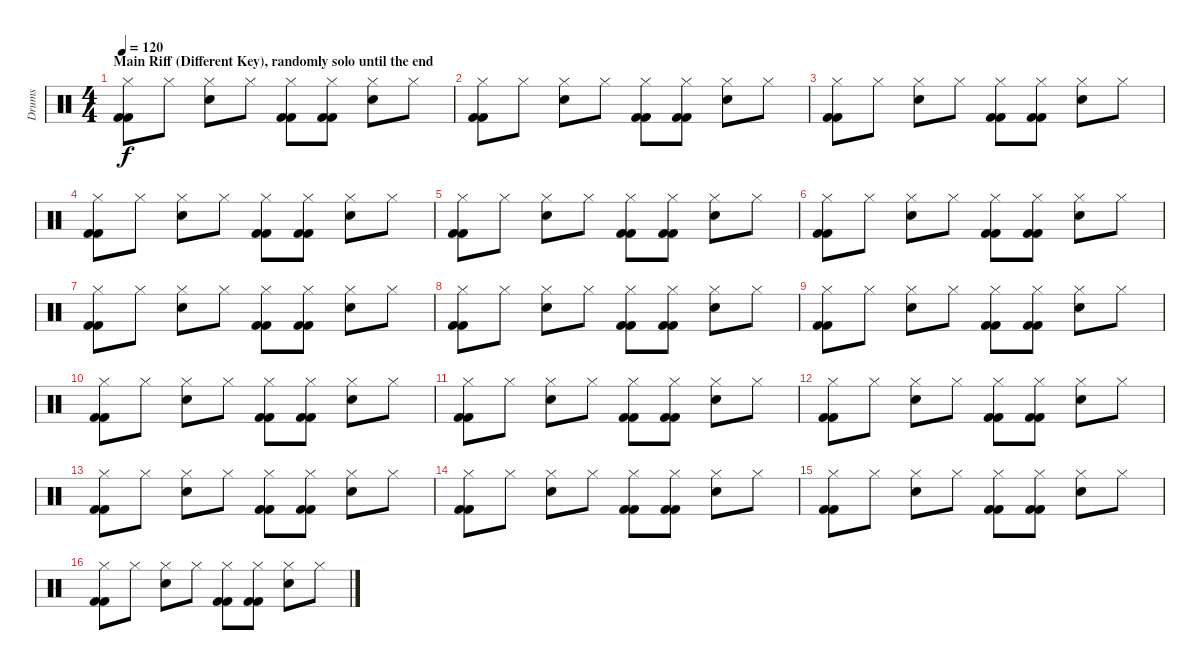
\track ("Drums" "Drums") {instrument percussion}
\staff {score}
\articulation defaults
\ts (4 4)
\section ("" "Main Riff (Different Key), randomly solo until the end")
\tempo 120
\clef neutral
\ks c
("Kick (hit) 2" "Hi-Hat (closed)" "Kick (hit) 2").8{dy f} "Hi-Hat (closed)".8 ("Snare (hit) 2" "Hi-Hat (closed)").8 "Hi-Hat (closed)".8 ("Kick (hit) 2" "Hi-Hat (closed)" "Kick (hit) 2").8 ("Kick (hit) 2" "Hi-Hat (closed)" "Kick (hit) 2").8 ("Snare (hit) 2" "Hi-Hat (closed)").8 "Hi-Hat (closed)".8 |
("Kick (hit) 2" "Hi-Hat (closed)" "Kick (hit) 2").8 "Hi-Hat (closed)".8 ("Snare (hit) 2" "Hi-Hat (closed)").8 "Hi-Hat (closed)".8 ("Kick (hit) 2" "Hi-Hat (closed)" "Kick (hit) 2").8 ("Kick (hit) 2" "Hi-Hat (closed)" "Kick (hit) 2").8 ("Snare (hit) 2" "Hi-Hat (closed)").8 "Hi-Hat (closed)".8 |
("Kick (hit) 2" "Hi-Hat (closed)" "Kick (hit) 2").8 "Hi-Hat (closed)".8 ("Snare (hit) 2" "Hi-Hat (closed)").8 "Hi-Hat (closed)".8 ("Kick (hit) 2" "Hi-Hat (closed)" "Kick (hit) 2").8 ("Kick (hit) 2" "Hi-Hat (closed)" "Kick (hit) 2").8 ("Snare (hit) 2" "Hi-Hat (closed)").8 "Hi-Hat (closed)".8 |
("Kick (hit) 2" "Hi-Hat (closed)" "Kick (hit) 2").8 "Hi-Hat (closed)".8 ("Snare (hit) 2" "Hi-Hat (closed)").8 "Hi-Hat (closed)".8 ("Kick (hit) 2" "Hi-Hat (closed)" "Kick (hit) 2").8 ("Kick (hit) 2" "Hi-Hat (closed)" "Kick (hit) 2").8 ("Snare (hit) 2" "Hi-Hat (closed)").8 "Hi-Hat (closed)".8 |
("Kick (hit) 2" "Hi-Hat (closed)" "Kick (hit) 2").8 "Hi-Hat (closed)".8 ("Snare (hit) 2" "Hi-Hat (closed)").8 "Hi-Hat (closed)".8 ("Kick (hit) 2" "Hi-Hat (closed)" "Kick (hit) 2").8 ("Kick (hit) 2" "Hi-Hat (closed)" "Kick (hit) 2").8 ("Snare (hit) 2" "Hi-Hat (closed)").8 "Hi-Hat (closed)".8 |
("Kick (hit) 2" "Hi-Hat (closed)" "Kick (hit) 2").8 "Hi-Hat (closed)".8 ("Snare (hit) 2" "Hi-Hat (closed)").8 "Hi-Hat (closed)".8 ("Kick (hit) 2" "Hi-Hat (closed)" "Kick (hit) 2").8 ("Kick (hit) 2" "Hi-Hat (closed)" "Kick (hit) 2").8 ("Snare (hit) 2" "Hi-Hat (closed)").8 "Hi-Hat (closed)".8 |
("Kick (hit) 2" "Hi-Hat (closed)" "Kick (hit) 2").8 "Hi-Hat (closed)".8 ("Snare (hit) 2" "Hi-Hat (closed)").8 "Hi-Hat (closed)".8 ("Kick (hit) 2" "Hi-Hat (closed)" "Kick (hit) 2").8 ("Kick (hit) 2" "Hi-Hat (closed)" "Kick (hit) 2").8 ("Snare (hit) 2" "Hi-Hat (closed)").8 "Hi-Hat (closed)".8 |
("Kick (hit) 2" "Hi-Hat (closed)" "Kick (hit) 2").8 "Hi-Hat (closed)".8 ("Snare (hit) 2" "Hi-Hat (closed)").8 "Hi-Hat (closed)".8 ("Kick (hit) 2" "Hi-Hat (closed)" "Kick (hit) 2").8 ("Kick (hit) 2" "Hi-Hat (closed)" "Kick (hit) 2").8 ("Snare (hit) 2" "Hi-Hat (closed)").8 "Hi-Hat (closed)".8 |
("Kick (hit) 2" "Hi-Hat (closed)" "Kick (hit) 2").8 "Hi-Hat (closed)".8 ("Snare (hit) 2" "Hi-Hat (closed)").8 "Hi-Hat (closed)".8 ("Kick (hit) 2" "Hi-Hat (closed)" "Kick (hit) 2").8 ("Kick (hit) 2" "Hi-Hat (closed)" "Kick (hit) 2").8 ("Snare (hit) 2" "Hi-Hat (closed)").8 "Hi-Hat (closed)".8 |
("Kick (hit) 2" "Hi-Hat (closed)" "Kick (hit) 2").8 "Hi-Hat (closed)".8 ("Snare (hit) 2" "Hi-Hat (closed)").8 "Hi-Hat (closed)".8 ("Kick (hit) 2" "Hi-Hat (closed)" "Kick (hit) 2").8 ("Kick (hit) 2" "Hi-Hat (closed)" "Kick (hit) 2").8 ("Snare (hit) 2" "Hi-Hat (closed)").8 "Hi-Hat (closed)".8 |
("Kick (hit) 2" "Hi-Hat (closed)" "Kick (hit) 2").8 "Hi-Hat (closed)".8 ("Snare (hit) 2" "Hi-Hat (closed)").8 "Hi-Hat (closed)".8 ("Kick (hit) 2" "Hi-Hat (closed)" "Kick (hit) 2").8 ("Kick (hit) 2" "Hi-Hat (closed)" "Kick (hit) 2").8 ("Snare (hit) 2" "Hi-Hat (closed)").8 "Hi-Hat (closed)".8 |
("Kick (hit) 2" "Hi-Hat (closed)" "Kick (hit) 2").8 "Hi-Hat (closed)".8 ("Snare (hit) 2" "Hi-Hat (closed)").8 "Hi-Hat (closed)".8 ("Kick (hit) 2" "Hi-Hat (closed)" "Kick (hit) 2").8 ("Kick (hit) 2" "Hi-Hat (closed)" "Kick (hit) 2").8 ("Snare (hit) 2" "Hi-Hat (closed)").8 "Hi-Hat (closed)".8 |
("Kick (hit) 2" "Hi-Hat (closed)" "Kick (hit) 2").8 "Hi-Hat (closed)".8 ("Snare (hit) 2" "Hi-Hat (closed)").8 "Hi-Hat (closed)".8 ("Kick (hit) 2" "Hi-Hat (closed)" "Kick (hit) 2").8 ("Kick (hit) 2" "Hi-Hat (closed)" "Kick (hit) 2").8 ("Snare (hit) 2" "Hi-Hat (closed)").8 "Hi-Hat (closed)".8 |
("Kick (hit) 2" "Hi-Hat (closed)" "Kick (hit) 2").8 "Hi-Hat (closed)".8 ("Snare (hit) 2" "Hi-Hat (closed)").8 "Hi-Hat (closed)".8 ("Kick (hit) 2" "Hi-Hat (closed)" "Kick (hit) 2").8 ("Kick (hit) 2" "Hi-Hat (closed)" "Kick (hit) 2").8 ("Snare (hit) 2" "Hi-Hat (closed)").8 "Hi-Hat (closed)".8 |
("Kick (hit) 2" "Hi-Hat (closed)" "Kick (hit) 2").8 "Hi-Hat (closed)".8 ("Snare (hit) 2" "Hi-Hat (closed)").8 "Hi-Hat (closed)".8 ("Kick (hit) 2" "Hi-Hat (closed)" "Kick (hit) 2").8 ("Kick (hit) 2" "Hi-Hat (closed)" "Kick (hit) 2").8 ("Snare (hit) 2" "Hi-Hat (closed)").8 "Hi-Hat (closed)".8 |
("Kick (hit) 2" "Hi-Hat (closed)" "Kick (hit) 2").8 "Hi-Hat (closed)".8 ("Snare (hit) 2" "Hi-Hat (closed)").8 "Hi-Hat (closed)".8 ("Kick (hit) 2" "Hi-Hat (closed)" "Kick (hit) 2").8 ("Kick (hit) 2" "Hi-Hat (closed)" "Kick (hit) 2").8 ("Snare (hit) 2" "Hi-Hat (closed)").8 "Hi-Hat (closed)".8
